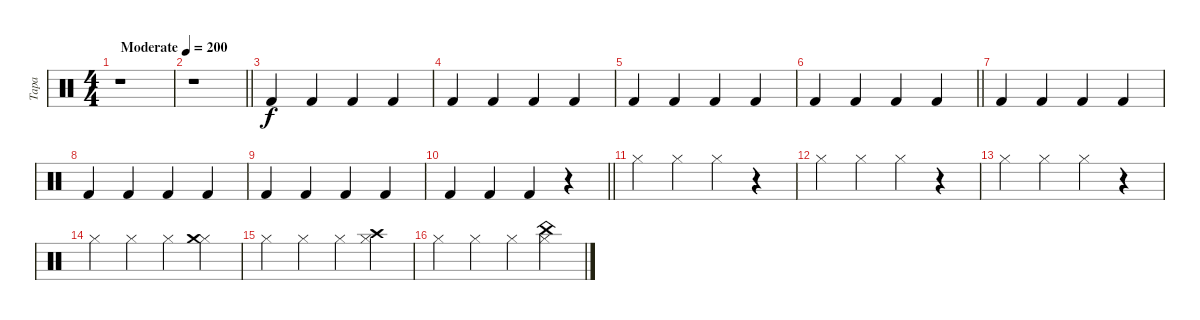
\track ("Tapa" "Tapa") {instrument percussion}
\staff {score}
\articulation defaults
\ts (4 4)
\tempo (200 "Moderate")
\clef neutral
\ks c
r.1{dy f} |
\barLineRight lightlight
r.1 |
"Kick (hit) 2".4 "Kick (hit) 2".4 "Kick (hit) 2".4 "Kick (hit) 2".4 |
"Kick (hit) 2".4 "Kick (hit) 2".4 "Kick (hit) 2".4 "Kick (hit) 2".4 |
"Kick (hit) 2".4 "Kick (hit) 2".4 "Kick (hit) 2".4 "Kick (hit) 2".4 |
\barLineRight lightlight "Kick (hit) 2".4 "Kick (hit) 2".4 "Kick (hit) 2".4 "Kick (hit) 2".4
|
"Kick (hit) 2".4 "Kick (hit) 2".4 "Kick (hit) 2".4 "Kick (hit) 2".4 |
"Kick (hit) 2".4 "Kick (hit) 2".4 "Kick (hit) 2".4 "Kick (hit) 2".4 |
"Kick (hit) 2".4 "Kick (hit) 2".4 "Kick (hit) 2".4 "Kick (hit) 2".4 |
\barLineRight lightlight "Kick (hit) 2".4 "Kick (hit) 2".4 "Kick (hit) 2".4
r.4 |
"Hi-Hat (closed)".4 "Hi-Hat (closed)".4 "Hi-Hat (closed)".4 r.4 |
"Hi-Hat (closed)".4 "Hi-Hat (closed)".4 "Hi-Hat (closed)".4 r.4 |
"Hi-Hat (closed)".4 "Hi-Hat (closed)".4 "Hi-Hat (closed)".4 r.4 |
"Hi-Hat (closed)".4 "Hi-Hat (closed)".4 "Hi-Hat (closed)".4 ("Hi-Hat (closed)" "Crash medium (hit)").4 |
"Hi-Hat (closed)".4 "Hi-Hat (closed)".4 "Hi-Hat (closed)".4 ("Hi-Hat (closed)" "Crash high (hit)").4 |
"Hi-Hat (closed)".4 "Hi-Hat (closed)".4 "Hi-Hat (closed)".4 ("Hi-Hat (closed)" "China (hit)").4
